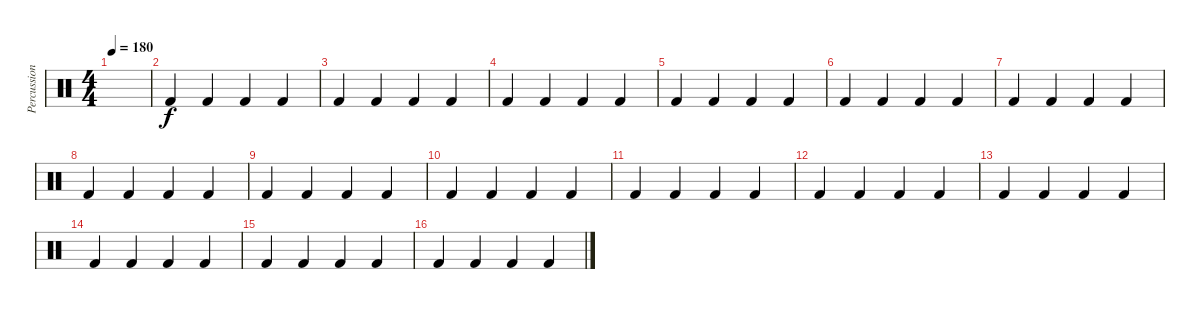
\track ("Percussion" "Percussion") {instrument percussion}
\staff {score}
\articulation defaults
\ts (4 4)
\tempo 180
\clef neutral
\ks c
|
"Kick (hit) 2".4 "Kick (hit) 2".4 "Kick (hit) 2".4 "Kick (hit) 2".4 |
"Kick (hit) 2".4 "Kick (hit) 2".4 "Kick (hit) 2".4 "Kick (hit) 2".4 |
"Kick (hit) 2".4 "Kick (hit) 2".4 "Kick (hit) 2".4 "Kick (hit) 2".4 |
"Kick (hit) 2".4 "Kick (hit) 2".4 "Kick (hit) 2".4 "Kick (hit) 2".4 |
"Kick (hit) 2".4 "Kick (hit) 2".4 "Kick (hit) 2".4 "Kick (hit) 2".4 |
"Kick (hit) 2".4 "Kick (hit) 2".4 "Kick (hit) 2".4 "Kick (hit) 2".4 |
"Kick (hit) 2".4 "Kick (hit) 2".4 "Kick (hit) 2".4 "Kick (hit) 2".4 |
"Kick (hit) 2".4 "Kick (hit) 2".4 "Kick (hit) 2".4 "Kick (hit) 2".4 |
"Kick (hit) 2".4 "Kick (hit) 2".4 "Kick (hit) 2".4 "Kick (hit) 2".4 |
"Kick (hit) 2".4 "Kick (hit) 2".4 "Kick (hit) 2".4 "Kick (hit) 2".4 |
"Kick (hit) 2".4 "Kick (hit) 2".4 "Kick (hit) 2".4 "Kick (hit) 2".4 |
"Kick (hit) 2".4 "Kick (hit) 2".4 "Kick (hit) 2".4 "Kick (hit) 2".4 |
"Kick (hit) 2".4 "Kick (hit) 2".4 "Kick (hit) 2".4 "Kick (hit) 2".4 |
"Kick (hit) 2".4 "Kick (hit) 2".4 "Kick (hit) 2".4 "Kick (hit) 2".4 |
"Kick (hit) 2".4 "Kick (hit) 2".4 "Kick (hit) 2".4 "Kick (hit) 2".4
